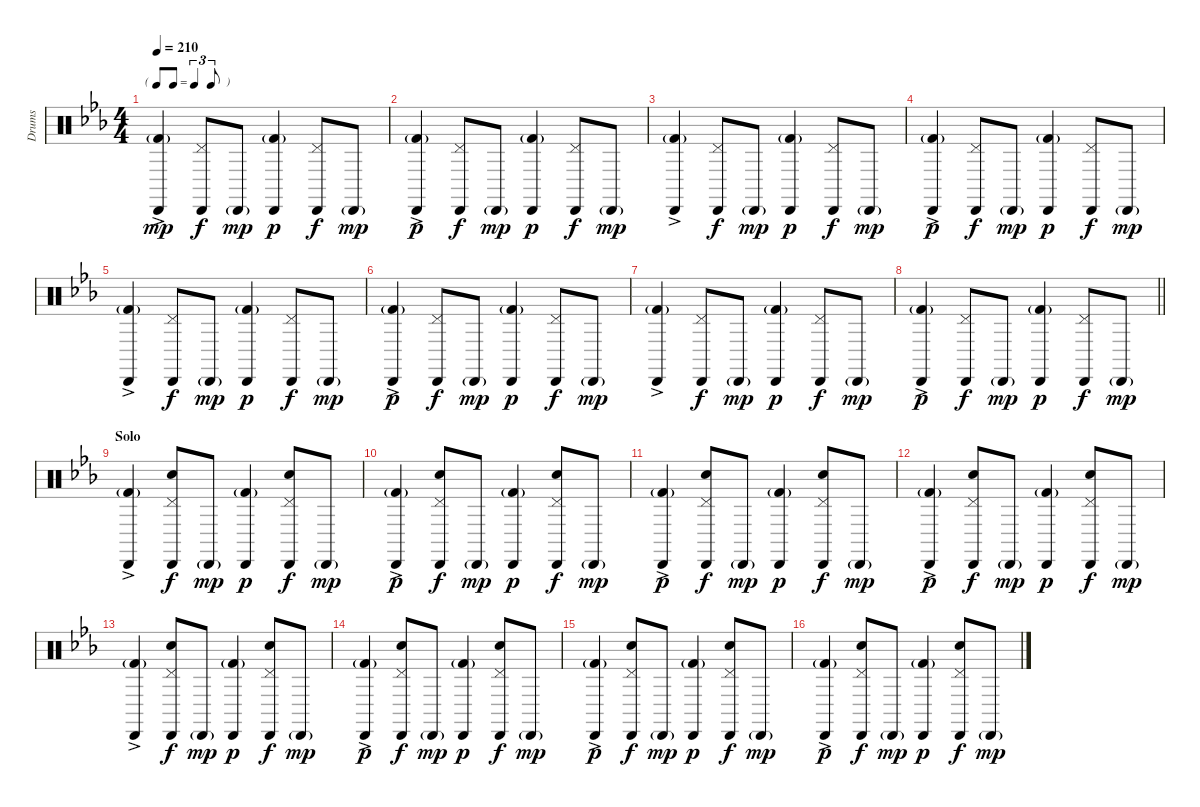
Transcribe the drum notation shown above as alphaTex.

\track ("Drums" "Drums") {instrument percussion}
\staff {score}
\articulation defaults
\ts (4 4)
\tf triplet8th
\tempo 210
\clef neutral
\ks eb
("Cabasa (hit)"{ac} "Kick (hit) 2"{g}).4{dy mp} ("Cabasa (hit)" "Pedal Hi-Hat (hit)").8{dy f} "Cabasa (hit)"{g}.8{dy mp} ("Cabasa (hit)" "Kick (hit) 2"{g}).4{dy p} ("Cabasa (hit)" "Pedal Hi-Hat (hit)").8{dy f} "Cabasa (hit)"{g}.8{dy mp} |
("Cabasa (hit)"{ac} "Kick (hit) 2"{g}).4{dy p} ("Cabasa (hit)" "Pedal Hi-Hat (hit)").8{dy f} "Cabasa (hit)"{g}.8{dy mp} ("Cabasa (hit)" "Kick (hit) 2"{g}).4{dy p} ("Cabasa (hit)" "Pedal Hi-Hat (hit)").8{dy f} "Cabasa (hit)"{g}.8{dy mp} |
("Cabasa (hit)"{ac} "Kick (hit) 2"{g}).4 ("Cabasa (hit)" "Pedal Hi-Hat (hit)").8{dy f} "Cabasa (hit)"{g}.8{dy mp} ("Cabasa (hit)" "Kick (hit) 2"{g}).4{dy p} ("Cabasa (hit)" "Pedal Hi-Hat (hit)").8{dy f} "Cabasa (hit)"{g}.8{dy mp} |
("Cabasa (hit)"{ac} "Kick (hit) 2"{g}).4{dy p} ("Cabasa (hit)" "Pedal Hi-Hat (hit)").8{dy f} "Cabasa (hit)"{g}.8{dy mp} ("Cabasa (hit)" "Kick (hit) 2"{g}).4{dy p} ("Cabasa (hit)" "Pedal Hi-Hat (hit)").8{dy f} "Cabasa (hit)"{g}.8{dy mp} |
("Cabasa (hit)"{ac} "Kick (hit) 2"{g}).4 ("Cabasa (hit)" "Pedal Hi-Hat (hit)").8{dy f} "Cabasa (hit)"{g}.8{dy mp} ("Cabasa (hit)" "Kick (hit) 2"{g}).4{dy p} ("Cabasa (hit)" "Pedal Hi-Hat (hit)").8{dy f} "Cabasa (hit)"{g}.8{dy mp} |
("Cabasa (hit)"{ac} "Kick (hit) 2"{g}).4{dy p} ("Cabasa (hit)" "Pedal Hi-Hat (hit)").8{dy f} "Cabasa (hit)"{g}.8{dy mp} ("Cabasa (hit)" "Kick (hit) 2"{g}).4{dy p} ("Cabasa (hit)" "Pedal Hi-Hat (hit)").8{dy f} "Cabasa (hit)"{g}.8{dy mp} |
("Cabasa (hit)"{ac} "Kick (hit) 2"{g}).4 ("Cabasa (hit)" "Pedal Hi-Hat (hit)").8{dy f} "Cabasa (hit)"{g}.8{dy mp} ("Cabasa (hit)" "Kick (hit) 2"{g}).4{dy p} ("Cabasa (hit)" "Pedal Hi-Hat (hit)").8{dy f} "Cabasa (hit)"{g}.8{dy mp} |
\barLineRight lightlight
("Cabasa (hit)"{ac} "Kick (hit) 2"{g}).4{dy p} ("Cabasa (hit)" "Pedal Hi-Hat (hit)").8{dy f} "Cabasa (hit)"{g}.8{dy mp} ("Cabasa (hit)" "Kick (hit) 2"{g}).4{dy p} ("Cabasa (hit)" "Pedal Hi-Hat (hit)").8{dy f} "Cabasa (hit)"{g}.8{dy mp} |
\section ("" "Solo")
("Cabasa (hit)"{ac} "Kick (hit) 2"{g}).4 ("Cabasa (hit)" "Hand Clap (hit)" "Pedal Hi-Hat (hit)").8{dy f} "Cabasa (hit)"{g}.8{dy mp} ("Cabasa (hit)" "Kick (hit) 2"{g}).4{dy p} ("Cabasa (hit)" "Hand Clap (hit)" "Pedal Hi-Hat (hit)").8{dy f} "Cabasa (hit)"{g}.8{dy mp} |
("Cabasa (hit)"{ac} "Kick (hit) 2"{g}).4{dy p} ("Cabasa (hit)" "Hand Clap (hit)" "Pedal Hi-Hat (hit)").8{dy f} "Cabasa (hit)"{g}.8{dy mp} ("Cabasa (hit)" "Kick (hit) 2"{g}).4{dy p} ("Cabasa (hit)" "Hand Clap (hit)" "Pedal Hi-Hat (hit)").8{dy f} "Cabasa (hit)"{g}.8{dy mp} |
("Cabasa (hit)"{ac} "Kick (hit) 2"{g}).4{dy p} ("Cabasa (hit)" "Hand Clap (hit)" "Pedal Hi-Hat (hit)").8{dy f} "Cabasa (hit)"{g}.8{dy mp} ("Cabasa (hit)" "Kick (hit) 2"{g}).4{dy p} ("Cabasa (hit)" "Hand Clap (hit)" "Pedal Hi-Hat (hit)").8{dy f} "Cabasa (hit)"{g}.8{dy mp} |
("Cabasa (hit)"{ac} "Kick (hit) 2"{g}).4{dy p} ("Cabasa (hit)" "Hand Clap (hit)" "Pedal Hi-Hat (hit)").8{dy f} "Cabasa (hit)"{g}.8{dy mp} ("Cabasa (hit)" "Kick (hit) 2"{g}).4{dy p} ("Cabasa (hit)" "Hand Clap (hit)" "Pedal Hi-Hat (hit)").8{dy f} "Cabasa (hit)"{g}.8{dy mp} |
("Cabasa (hit)"{ac} "Kick (hit) 2"{g}).4 ("Cabasa (hit)" "Hand Clap (hit)" "Pedal Hi-Hat (hit)").8{dy f} "Cabasa (hit)"{g}.8{dy mp} ("Cabasa (hit)" "Kick (hit) 2"{g}).4{dy p} ("Cabasa (hit)" "Hand Clap (hit)" "Pedal Hi-Hat (hit)").8{dy f} "Cabasa (hit)"{g}.8{dy mp} |
("Cabasa (hit)"{ac} "Kick (hit) 2"{g}).4{dy p} ("Cabasa (hit)" "Hand Clap (hit)" "Pedal Hi-Hat (hit)").8{dy f} "Cabasa (hit)"{g}.8{dy mp} ("Cabasa (hit)" "Kick (hit) 2"{g}).4{dy p} ("Cabasa (hit)" "Hand Clap (hit)" "Pedal Hi-Hat (hit)").8{dy f} "Cabasa (hit)"{g}.8{dy mp} |
("Cabasa (hit)"{ac} "Kick (hit) 2"{g}).4{dy p} ("Cabasa (hit)" "Hand Clap (hit)" "Pedal Hi-Hat (hit)").8{dy f} "Cabasa (hit)"{g}.8{dy mp} ("Cabasa (hit)" "Kick (hit) 2"{g}).4{dy p} ("Cabasa (hit)" "Hand Clap (hit)" "Pedal Hi-Hat (hit)").8{dy f} "Cabasa (hit)"{g}.8{dy mp} |
("Cabasa (hit)"{ac} "Kick (hit) 2"{g}).4{dy p} ("Cabasa (hit)" "Hand Clap (hit)" "Pedal Hi-Hat (hit)").8{dy f} "Cabasa (hit)"{g}.8{dy mp} ("Cabasa (hit)" "Kick (hit) 2"{g}).4{dy p} ("Cabasa (hit)" "Hand Clap (hit)" "Pedal Hi-Hat (hit)").8{dy f} "Cabasa (hit)"{g}.8{dy mp}
